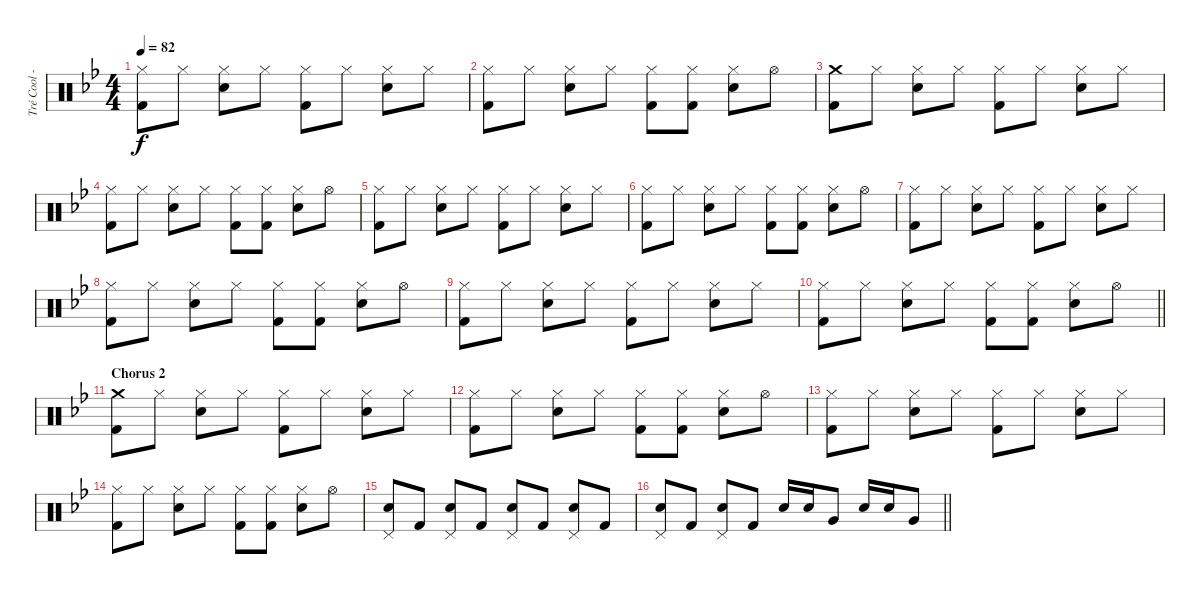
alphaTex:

\track ("Tré Cool - Drums" "Tré Cool -") {instrument percussion}
\staff {score}
\articulation defaults
\ts (4 4)
\tempo 82
\clef neutral
\ks gminor
("Hi-Hat (closed)" "Kick (hit) 2").8{dy f} "Hi-Hat (closed)".8 ("Hi-Hat (closed)" "Electric Snare (hit)").8 "Hi-Hat (closed)".8 ("Hi-Hat (closed)" "Kick (hit) 2").8 "Hi-Hat (closed)".8 ("Hi-Hat (closed)" "Electric Snare (hit)").8 "Hi-Hat (closed)".8 |
("Hi-Hat (closed)" "Kick (hit) 2").8 "Hi-Hat (closed)".8 ("Hi-Hat (closed)" "Electric Snare (hit)").8 "Hi-Hat (closed)".8 ("Hi-Hat (closed)" "Kick (hit) 2").8 ("Hi-Hat (closed)" "Kick (hit) 2").8 ("Hi-Hat (closed)" "Electric Snare (hit)").8 "Hi-Hat (open)".8 |
("Crash medium (hit)" "Kick (hit) 2").8 "Hi-Hat (closed)".8 ("Hi-Hat (closed)" "Electric Snare (hit)").8 "Hi-Hat (closed)".8 ("Hi-Hat (closed)" "Kick (hit) 2").8 "Hi-Hat (closed)".8 ("Hi-Hat (closed)" "Electric Snare (hit)").8 "Hi-Hat (closed)".8 |
("Hi-Hat (closed)" "Kick (hit) 2").8 "Hi-Hat (closed)".8 ("Hi-Hat (closed)" "Electric Snare (hit)").8 "Hi-Hat (closed)".8 ("Hi-Hat (closed)" "Kick (hit) 2").8 ("Hi-Hat (closed)" "Kick (hit) 2").8 ("Hi-Hat (closed)" "Electric Snare (hit)").8 "Hi-Hat (open)".8 |
("Hi-Hat (closed)" "Kick (hit) 2").8 "Hi-Hat (closed)".8 ("Hi-Hat (closed)" "Electric Snare (hit)").8 "Hi-Hat (closed)".8 ("Hi-Hat (closed)" "Kick (hit) 2").8 "Hi-Hat (closed)".8 ("Hi-Hat (closed)" "Electric Snare (hit)").8 "Hi-Hat (closed)".8 |
("Hi-Hat (closed)" "Kick (hit) 2").8 "Hi-Hat (closed)".8 ("Hi-Hat (closed)" "Electric Snare (hit)").8 "Hi-Hat (closed)".8 ("Hi-Hat (closed)" "Kick (hit) 2").8 ("Hi-Hat (closed)" "Kick (hit) 2").8 ("Hi-Hat (closed)" "Electric Snare (hit)").8 "Hi-Hat (open)".8 |
("Hi-Hat (closed)" "Kick (hit) 2").8 "Hi-Hat (closed)".8 ("Hi-Hat (closed)" "Electric Snare (hit)").8 "Hi-Hat (closed)".8 ("Hi-Hat (closed)" "Kick (hit) 2").8 "Hi-Hat (closed)".8 ("Hi-Hat (closed)" "Electric Snare (hit)").8 "Hi-Hat (closed)".8 |
("Hi-Hat (closed)" "Kick (hit) 2").8 "Hi-Hat (closed)".8 ("Hi-Hat (closed)" "Electric Snare (hit)").8 "Hi-Hat (closed)".8 ("Hi-Hat (closed)" "Kick (hit) 2").8 ("Hi-Hat (closed)" "Kick (hit) 2").8 ("Hi-Hat (closed)" "Electric Snare (hit)").8 "Hi-Hat (open)".8 |
("Hi-Hat (closed)" "Kick (hit) 2").8 "Hi-Hat (closed)".8 ("Hi-Hat (closed)" "Electric Snare (hit)").8 "Hi-Hat (closed)".8 ("Hi-Hat (closed)" "Kick (hit) 2").8 "Hi-Hat (closed)".8 ("Hi-Hat (closed)" "Electric Snare (hit)").8 "Hi-Hat (closed)".8 |
\barLineRight lightlight
("Hi-Hat (closed)" "Kick (hit) 2").8 "Hi-Hat (closed)".8 ("Hi-Hat (closed)" "Electric Snare (hit)").8 "Hi-Hat (closed)".8 ("Hi-Hat (closed)" "Kick (hit) 2").8 ("Hi-Hat (closed)" "Kick (hit) 2").8 ("Hi-Hat (closed)" "Electric Snare (hit)").8 "Hi-Hat (open)".8 |
\section ("" "Chorus 2")
("Crash medium (hit)" "Kick (hit) 2").8 "Hi-Hat (closed)".8 ("Hi-Hat (closed)" "Electric Snare (hit)").8 "Hi-Hat (closed)".8 ("Hi-Hat (closed)" "Kick (hit) 2").8 "Hi-Hat (closed)".8 ("Hi-Hat (closed)" "Electric Snare (hit)").8 "Hi-Hat (closed)".8 |
("Hi-Hat (closed)" "Kick (hit) 2").8 "Hi-Hat (closed)".8 ("Hi-Hat (closed)" "Electric Snare (hit)").8 "Hi-Hat (closed)".8 ("Hi-Hat (closed)" "Kick (hit) 2").8 ("Hi-Hat (closed)" "Kick (hit) 2").8 ("Hi-Hat (closed)" "Electric Snare (hit)").8 "Hi-Hat (open)".8 |
("Hi-Hat (closed)" "Kick (hit) 2").8 "Hi-Hat (closed)".8 ("Hi-Hat (closed)" "Electric Snare (hit)").8 "Hi-Hat (closed)".8 ("Hi-Hat (closed)" "Kick (hit) 2").8 "Hi-Hat (closed)".8 ("Hi-Hat (closed)" "Electric Snare (hit)").8 "Hi-Hat (closed)".8 |
("Hi-Hat (closed)" "Kick (hit) 2").8 "Hi-Hat (closed)".8 ("Hi-Hat (closed)" "Electric Snare (hit)").8 "Hi-Hat (closed)".8 ("Hi-Hat (closed)" "Kick (hit) 2").8 ("Hi-Hat (closed)" "Kick (hit) 2").8 ("Hi-Hat (closed)" "Electric Snare (hit)").8 "Hi-Hat (open)".8 |
("Pedal Hi-Hat (hit)" "Electric Snare (hit)").8 "Kick (hit) 2".8 ("Pedal Hi-Hat (hit)" "Electric Snare (hit)").8 "Kick (hit) 2".8 ("Pedal Hi-Hat (hit)" "Electric Snare (hit)").8 "Kick (hit) 2".8 ("Pedal Hi-Hat (hit)" "Electric Snare (hit)").8 "Kick (hit) 2".8 |
\barLineRight lightlight
("Pedal Hi-Hat (hit)" "Electric Snare (hit)").8 "Kick (hit) 2".8 ("Pedal Hi-Hat (hit)" "Electric Snare (hit)").8 "Kick (hit) 2".8 "Electric Snare (hit)".16 "Electric Snare (hit)".16 "Very Low Tom (hit)".8 "Electric Snare (hit)".16 "Electric Snare (hit)".16 "Very Low Tom (hit)".8
